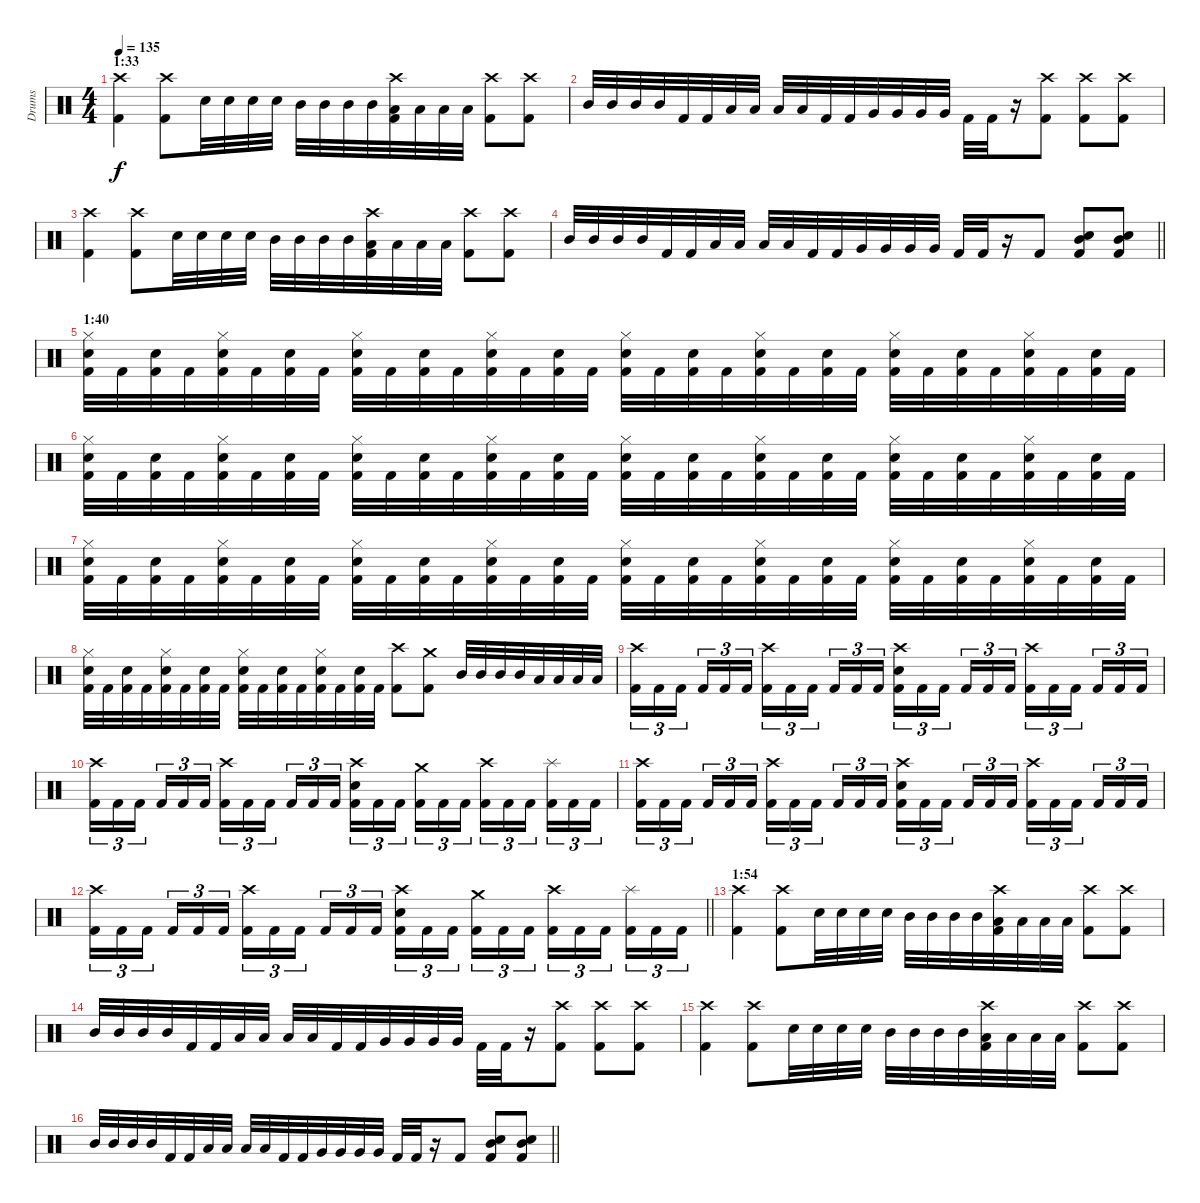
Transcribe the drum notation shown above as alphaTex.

\track ("Drums" "Drums") {instrument percussion}
\staff {score}
\articulation defaults
\ts (4 4)
\section ("" "1:33")
\tempo 135
\clef neutral
\ks c
("Crash high (hit)" "Kick (hit) 2").4{dy f} ("Crash high (hit)" "Kick (hit) 2").8 "Electric Snare (hit)".32 "Electric Snare (hit)".32 "Electric Snare (hit)".32 "Electric Snare (hit)".32 "Mid Tom (hit)".32 "Mid Tom (hit)".32 "Mid Tom (hit)".32 "Mid Tom (hit)".32 ("Crash high (hit)" "Low Tom (hit)" "Kick (hit) 2").32 "Low Tom (hit)".32 "Low Tom (hit)".32 "Low Tom (hit)".32 ("Crash high (hit)" "Kick (hit) 2").8 ("Crash high (hit)" "Kick (hit) 2").8 |
"Mid Tom (hit)".32 "Mid Tom (hit)".32 "Mid Tom (hit)".32 "Mid Tom (hit)".32 "Kick (hit) 2".32 "Kick (hit) 2".32 "Low Tom (hit)".32 "Low Tom (hit)".32 "Low Tom (hit)".32 "Low Tom (hit)".32 "Kick (hit) 2".32 "Kick (hit) 2".32 "Very Low Tom (hit)".32 "Very Low Tom (hit)".32 "Very Low Tom (hit)".32 "Very Low Tom (hit)".32 "Kick (hit) 2".32 "Kick (hit) 2".32 r.16 ("Crash high (hit)" "Kick (hit) 2").8 ("Crash high (hit)" "Kick (hit) 2").8 ("Crash high (hit)" "Kick (hit) 2").8 |
("Crash high (hit)" "Kick (hit) 2").4 ("Crash high (hit)" "Kick (hit) 2").8 "Electric Snare (hit)".32 "Electric Snare (hit)".32 "Electric Snare (hit)".32 "Electric Snare (hit)".32 "Mid Tom (hit)".32 "Mid Tom (hit)".32 "Mid Tom (hit)".32 "Mid Tom (hit)".32 ("Crash high (hit)" "Low Tom (hit)" "Kick (hit) 2").32 "Low Tom (hit)".32 "Low Tom (hit)".32 "Low Tom (hit)".32 ("Crash high (hit)" "Kick (hit) 2").8 ("Crash high (hit)" "Kick (hit) 2").8 |
\barLineRight lightlight "Mid Tom (hit)".32 "Mid Tom (hit)".32 "Mid Tom (hit)".32 "Mid Tom (hit)".32 "Kick (hit) 2".32 "Kick (hit) 2".32 "Low Tom (hit)".32 "Low Tom (hit)".32 "Low Tom (hit)".32 "Low Tom (hit)".32 "Kick (hit) 2".32 "Kick (hit) 2".32 "Very Low Tom (hit)".32 "Very Low Tom (hit)".32 "Very Low Tom (hit)".32 "Very Low Tom (hit)".32 "Kick (hit) 2".32 "Kick (hit) 2".32
r.16 "Kick (hit) 2".8 ("Electric Snare (hit)" "Mid Tom (hit)" "Kick (hit) 2").8 ("Electric Snare (hit)" "Mid Tom (hit)" "Kick (hit) 2").8 |
\section ("" "1:40")
("Electric Snare (hit)" "Hi-Hat (closed)" "Kick (hit) 2").32 "Kick (hit) 2".32 ("Electric Snare (hit)" "Kick (hit) 2").32 "Kick (hit) 2".32 ("Electric Snare (hit)" "Hi-Hat (closed)" "Kick (hit) 2").32 "Kick (hit) 2".32 ("Electric Snare (hit)" "Kick (hit) 2").32 "Kick (hit) 2".32 ("Electric Snare (hit)" "Hi-Hat (closed)" "Kick (hit) 2").32 "Kick (hit) 2".32 ("Electric Snare (hit)" "Kick (hit) 2").32 "Kick (hit) 2".32 ("Electric Snare (hit)" "Hi-Hat (closed)" "Kick (hit) 2").32 "Kick (hit) 2".32 ("Electric Snare (hit)" "Kick (hit) 2").32 "Kick (hit) 2".32 ("Electric Snare (hit)" "Hi-Hat (closed)" "Kick (hit) 2").32 "Kick (hit) 2".32 ("Electric Snare (hit)" "Kick (hit) 2").32 "Kick (hit) 2".32 ("Electric Snare (hit)" "Hi-Hat (closed)" "Kick (hit) 2").32 "Kick (hit) 2".32 ("Electric Snare (hit)" "Kick (hit) 2").32 "Kick (hit) 2".32 ("Electric Snare (hit)" "Hi-Hat (closed)" "Kick (hit) 2").32 "Kick (hit) 2".32 ("Electric Snare (hit)" "Kick (hit) 2").32 "Kick (hit) 2".32 ("Electric Snare (hit)" "Hi-Hat (closed)" "Kick (hit) 2").32 "Kick (hit) 2".32 ("Electric Snare (hit)" "Kick (hit) 2").32 "Kick (hit) 2".32 |
("Electric Snare (hit)" "Hi-Hat (closed)" "Kick (hit) 2").32 "Kick (hit) 2".32 ("Electric Snare (hit)" "Kick (hit) 2").32 "Kick (hit) 2".32 ("Electric Snare (hit)" "Hi-Hat (closed)" "Kick (hit) 2").32 "Kick (hit) 2".32 ("Electric Snare (hit)" "Kick (hit) 2").32 "Kick (hit) 2".32 ("Electric Snare (hit)" "Hi-Hat (closed)" "Kick (hit) 2").32 "Kick (hit) 2".32 ("Electric Snare (hit)" "Kick (hit) 2").32 "Kick (hit) 2".32 ("Electric Snare (hit)" "Hi-Hat (closed)" "Kick (hit) 2").32 "Kick (hit) 2".32 ("Electric Snare (hit)" "Kick (hit) 2").32 "Kick (hit) 2".32 ("Electric Snare (hit)" "Hi-Hat (closed)" "Kick (hit) 2").32 "Kick (hit) 2".32 ("Electric Snare (hit)" "Kick (hit) 2").32 "Kick (hit) 2".32 ("Electric Snare (hit)" "Hi-Hat (closed)" "Kick (hit) 2").32 "Kick (hit) 2".32 ("Electric Snare (hit)" "Kick (hit) 2").32 "Kick (hit) 2".32 ("Electric Snare (hit)" "Hi-Hat (closed)" "Kick (hit) 2").32 "Kick (hit) 2".32 ("Electric Snare (hit)" "Kick (hit) 2").32 "Kick (hit) 2".32 ("Electric Snare (hit)" "Hi-Hat (closed)" "Kick (hit) 2").32 "Kick (hit) 2".32 ("Electric Snare (hit)" "Kick (hit) 2").32 "Kick (hit) 2".32 |
("Electric Snare (hit)" "Hi-Hat (closed)" "Kick (hit) 2").32 "Kick (hit) 2".32 ("Electric Snare (hit)" "Kick (hit) 2").32 "Kick (hit) 2".32 ("Electric Snare (hit)" "Hi-Hat (closed)" "Kick (hit) 2").32 "Kick (hit) 2".32 ("Electric Snare (hit)" "Kick (hit) 2").32 "Kick (hit) 2".32 ("Electric Snare (hit)" "Hi-Hat (closed)" "Kick (hit) 2").32 "Kick (hit) 2".32 ("Electric Snare (hit)" "Kick (hit) 2").32 "Kick (hit) 2".32 ("Electric Snare (hit)" "Hi-Hat (closed)" "Kick (hit) 2").32 "Kick (hit) 2".32 ("Electric Snare (hit)" "Kick (hit) 2").32 "Kick (hit) 2".32 ("Electric Snare (hit)" "Hi-Hat (closed)" "Kick (hit) 2").32 "Kick (hit) 2".32 ("Electric Snare (hit)" "Kick (hit) 2").32 "Kick (hit) 2".32 ("Electric Snare (hit)" "Hi-Hat (closed)" "Kick (hit) 2").32 "Kick (hit) 2".32 ("Electric Snare (hit)" "Kick (hit) 2").32 "Kick (hit) 2".32 ("Electric Snare (hit)" "Hi-Hat (closed)" "Kick (hit) 2").32 "Kick (hit) 2".32 ("Electric Snare (hit)" "Kick (hit) 2").32 "Kick (hit) 2".32 ("Electric Snare (hit)" "Hi-Hat (closed)" "Kick (hit) 2").32 "Kick (hit) 2".32 ("Electric Snare (hit)" "Kick (hit) 2").32 "Kick (hit) 2".32 |
("Electric Snare (hit)" "Hi-Hat (closed)" "Kick (hit) 2").32 "Kick (hit) 2".32 ("Electric Snare (hit)" "Kick (hit) 2").32 "Kick (hit) 2".32 ("Electric Snare (hit)" "Hi-Hat (closed)" "Kick (hit) 2").32 "Kick (hit) 2".32 ("Electric Snare (hit)" "Kick (hit) 2").32 "Kick (hit) 2".32 ("Electric Snare (hit)" "Hi-Hat (closed)" "Kick (hit) 2").32 "Kick (hit) 2".32 ("Electric Snare (hit)" "Kick (hit) 2").32 "Kick (hit) 2".32 ("Electric Snare (hit)" "Hi-Hat (closed)" "Kick (hit) 2").32 "Kick (hit) 2".32 ("Electric Snare (hit)" "Kick (hit) 2").32 "Kick (hit) 2".32 ("Crash high (hit)" "Kick (hit) 2").8 ("Crash medium (hit)" "Kick (hit) 2").8 "Mid Tom (hit)".32 "Mid Tom (hit)".32 "Mid Tom (hit)".32 "Mid Tom (hit)".32 "Low Tom (hit)".32 "Low Tom (hit)".32 "Low Tom (hit)".32 "Low Tom (hit)".32 |
("Crash high (hit)" "Kick (hit) 2").16{tu (3 2)} "Kick (hit) 2".16{tu (3 2)} "Kick (hit) 2".16{tu (3 2) beam splitsecondary} "Kick (hit) 2".16{tu (3 2)} "Kick (hit) 2".16{tu (3 2)} "Kick (hit) 2".16{tu (3 2)} ("Crash high (hit)" "Kick (hit) 2").16{tu (3 2)} "Kick (hit) 2".16{tu (3 2)} "Kick (hit) 2".16{tu (3 2) beam splitsecondary} "Kick (hit) 2".16{tu (3 2)} "Kick (hit) 2".16{tu (3 2)} "Kick (hit) 2".16{tu (3 2)} ("Crash high (hit)" "Electric Snare (hit)" "Kick (hit) 2").16{tu (3 2)} "Kick (hit) 2".16{tu (3 2)} "Kick (hit) 2".16{tu (3 2) beam splitsecondary} "Kick (hit) 2".16{tu (3 2)} "Kick (hit) 2".16{tu (3 2)} "Kick (hit) 2".16{tu (3 2)} ("Crash high (hit)" "Kick (hit) 2").16{tu (3 2)} "Kick (hit) 2".16{tu (3 2)} "Kick (hit) 2".16{tu (3 2) beam splitsecondary} "Kick (hit) 2".16{tu (3 2)} "Kick (hit) 2".16{tu (3 2)} "Kick (hit) 2".16{tu (3 2)} |
("Crash high (hit)" "Kick (hit) 2").16{tu (3 2)} "Kick (hit) 2".16{tu (3 2)} "Kick (hit) 2".16{tu (3 2) beam splitsecondary} "Kick (hit) 2".16{tu (3 2)} "Kick (hit) 2".16{tu (3 2)} "Kick (hit) 2".16{tu (3 2)} ("Crash high (hit)" "Kick (hit) 2").16{tu (3 2)} "Kick (hit) 2".16{tu (3 2)} "Kick (hit) 2".16{tu (3 2) beam splitsecondary} "Kick (hit) 2".16{tu (3 2)} "Kick (hit) 2".16{tu (3 2)} "Kick (hit) 2".16{tu (3 2)} ("Crash high (hit)" "Electric Snare (hit)" "Kick (hit) 2").16{tu (3 2)} "Kick (hit) 2".16{tu (3 2)} "Kick (hit) 2".16{tu (3 2) beam splitsecondary} ("Crash medium (hit)" "Kick (hit) 2").16{tu (3 2)} "Kick (hit) 2".16{tu (3 2)} "Kick (hit) 2".16{tu (3 2)} ("Crash high (hit)" "Kick (hit) 2").16{tu (3 2)} "Kick (hit) 2".16{tu (3 2)} "Kick (hit) 2".16{tu (3 2) beam splitsecondary} ("Splash (hit)" "Kick (hit) 2").16{tu (3 2)} "Kick (hit) 2".16{tu (3 2)} "Kick (hit) 2".16{tu (3 2)} |
("Crash high (hit)" "Kick (hit) 2").16{tu (3 2)} "Kick (hit) 2".16{tu (3 2)} "Kick (hit) 2".16{tu (3 2) beam splitsecondary} "Kick (hit) 2".16{tu (3 2)} "Kick (hit) 2".16{tu (3 2)} "Kick (hit) 2".16{tu (3 2)} ("Crash high (hit)" "Kick (hit) 2").16{tu (3 2)} "Kick (hit) 2".16{tu (3 2)} "Kick (hit) 2".16{tu (3 2) beam splitsecondary} "Kick (hit) 2".16{tu (3 2)} "Kick (hit) 2".16{tu (3 2)} "Kick (hit) 2".16{tu (3 2)} ("Crash high (hit)" "Electric Snare (hit)" "Kick (hit) 2").16{tu (3 2)} "Kick (hit) 2".16{tu (3 2)} "Kick (hit) 2".16{tu (3 2) beam splitsecondary} "Kick (hit) 2".16{tu (3 2)} "Kick (hit) 2".16{tu (3 2)} "Kick (hit) 2".16{tu (3 2)} ("Crash high (hit)" "Kick (hit) 2").16{tu (3 2)} "Kick (hit) 2".16{tu (3 2)} "Kick (hit) 2".16{tu (3 2) beam splitsecondary} "Kick (hit) 2".16{tu (3 2)} "Kick (hit) 2".16{tu (3 2)} "Kick (hit) 2".16{tu (3 2)} |
\barLineRight lightlight
("Crash high (hit)" "Kick (hit) 2").16{tu (3 2)} "Kick (hit) 2".16{tu (3 2)} "Kick (hit) 2".16{tu (3 2) beam splitsecondary} "Kick (hit) 2".16{tu (3 2)} "Kick (hit) 2".16{tu (3 2)} "Kick (hit) 2".16{tu (3 2)} ("Crash high (hit)" "Kick (hit) 2").16{tu (3 2)} "Kick (hit) 2".16{tu (3 2)} "Kick (hit) 2".16{tu (3 2) beam splitsecondary} "Kick (hit) 2".16{tu (3 2)} "Kick (hit) 2".16{tu (3 2)} "Kick (hit) 2".16{tu (3 2)} ("Crash high (hit)" "Electric Snare (hit)" "Kick (hit) 2").16{tu (3 2)} "Kick (hit) 2".16{tu (3 2)} "Kick (hit) 2".16{tu (3 2) beam splitsecondary} ("Crash medium (hit)" "Kick (hit) 2").16{tu (3 2)} "Kick (hit) 2".16{tu (3 2)} "Kick (hit) 2".16{tu (3 2)} ("Crash high (hit)" "Kick (hit) 2").16{tu (3 2)} "Kick (hit) 2".16{tu (3 2)} "Kick (hit) 2".16{tu (3 2) beam splitsecondary} ("Splash (hit)" "Kick (hit) 2").16{tu (3 2)} "Kick (hit) 2".16{tu (3 2)} "Kick (hit) 2".16{tu (3 2)} |
\section ("" "1:54")
("Crash high (hit)" "Kick (hit) 2").4 ("Crash high (hit)" "Kick (hit) 2").8 "Electric Snare (hit)".32 "Electric Snare (hit)".32 "Electric Snare (hit)".32 "Electric Snare (hit)".32 "Mid Tom (hit)".32 "Mid Tom (hit)".32 "Mid Tom (hit)".32 "Mid Tom (hit)".32 ("Crash high (hit)" "Low Tom (hit)" "Kick (hit) 2").32 "Low Tom (hit)".32 "Low Tom (hit)".32 "Low Tom (hit)".32 ("Crash high (hit)" "Kick (hit) 2").8 ("Crash high (hit)" "Kick (hit) 2").8 |
"Mid Tom (hit)".32 "Mid Tom (hit)".32 "Mid Tom (hit)".32 "Mid Tom (hit)".32 "Kick (hit) 2".32 "Kick (hit) 2".32 "Low Tom (hit)".32 "Low Tom (hit)".32 "Low Tom (hit)".32 "Low Tom (hit)".32 "Kick (hit) 2".32 "Kick (hit) 2".32 "Very Low Tom (hit)".32 "Very Low Tom (hit)".32 "Very Low Tom (hit)".32 "Very Low Tom (hit)".32 "Kick (hit) 2".32 "Kick (hit) 2".32 r.16 ("Crash high (hit)" "Kick (hit) 2").8 ("Crash high (hit)" "Kick (hit) 2").8 ("Crash high (hit)" "Kick (hit) 2").8 |
("Crash high (hit)" "Kick (hit) 2").4 ("Crash high (hit)" "Kick (hit) 2").8 "Electric Snare (hit)".32 "Electric Snare (hit)".32 "Electric Snare (hit)".32 "Electric Snare (hit)".32 "Mid Tom (hit)".32 "Mid Tom (hit)".32 "Mid Tom (hit)".32 "Mid Tom (hit)".32 ("Crash high (hit)" "Low Tom (hit)" "Kick (hit) 2").32 "Low Tom (hit)".32 "Low Tom (hit)".32 "Low Tom (hit)".32 ("Crash high (hit)" "Kick (hit) 2").8 ("Crash high (hit)" "Kick (hit) 2").8 |
\barLineRight lightlight "Mid Tom (hit)".32 "Mid Tom (hit)".32 "Mid Tom (hit)".32 "Mid Tom (hit)".32 "Kick (hit) 2".32 "Kick (hit) 2".32 "Low Tom (hit)".32 "Low Tom (hit)".32 "Low Tom (hit)".32 "Low Tom (hit)".32 "Kick (hit) 2".32 "Kick (hit) 2".32 "Very Low Tom (hit)".32 "Very Low Tom (hit)".32 "Very Low Tom (hit)".32 "Very Low Tom (hit)".32 "Kick (hit) 2".32 "Kick (hit) 2".32
r.16 "Kick (hit) 2".8 ("Electric Snare (hit)" "Mid Tom (hit)" "Kick (hit) 2").8 ("Electric Snare (hit)" "Mid Tom (hit)" "Kick (hit) 2").8
